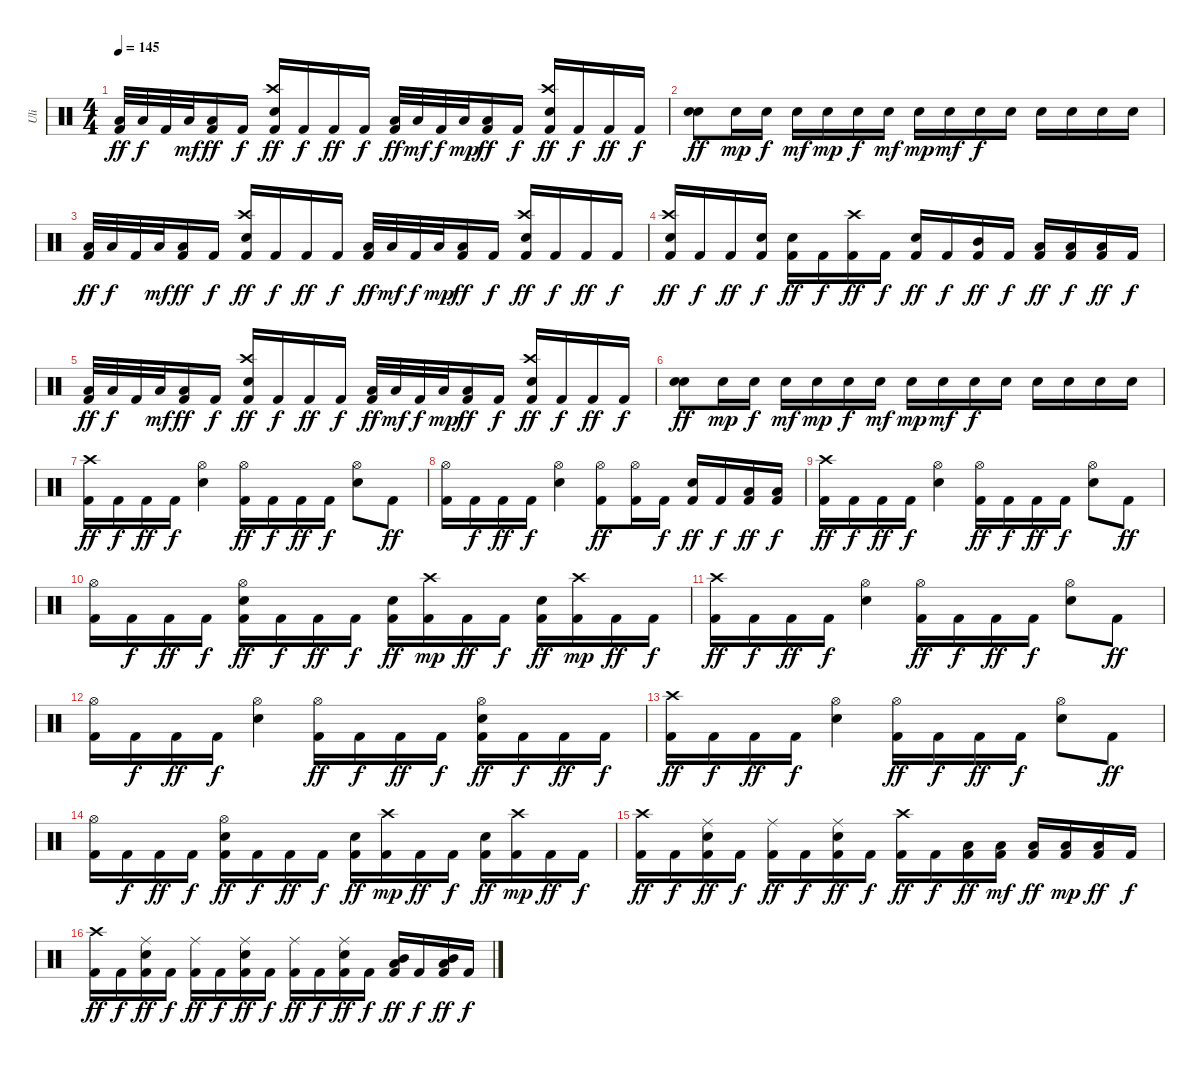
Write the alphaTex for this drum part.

\track ("Uli" "Uli") {instrument percussion}
\staff {score}
\articulation defaults
\ts (4 4)
\tempo 145
\clef neutral
\ks c
("Low Tom (hit)" "Kick (hit) 2").32{dy ff} "Low Tom (hit)".32{dy f} "Kick (hit) 2".32 "Low Tom (hit)".32{dy mf} ("Low Tom (hit)" "Kick (hit) 2").16{dy ff} "Kick (hit) 2".16{dy f} ("Crash high (hit)" "Electric Snare (hit)" "Kick (hit) 2").16{dy ff} "Kick (hit) 2".16{dy f} "Kick (hit) 2".16{dy ff} "Kick (hit) 2".16{dy f} ("Low Tom (hit)" "Kick (hit) 2").32{dy ff} "Low Tom (hit)".32{dy mf} "Kick (hit) 2".32{dy f} "Low Tom (hit)".32{dy mp} ("Low Tom (hit)" "Kick (hit) 2").16{dy ff} "Kick (hit) 2".16{dy f} ("Crash high (hit)" "Electric Snare (hit)" "Kick (hit) 2").16{dy ff} "Kick (hit) 2".16{dy f} "Kick (hit) 2".16{dy ff} "Kick (hit) 2".16{dy f} |
("Electric Snare (hit)" "Electric Snare (hit)").8{dy ff} "Electric Snare (hit)".16{dy mp} "Electric Snare (hit)".16{dy f} "Electric Snare (hit)".16{dy mf} "Electric Snare (hit)".16{dy mp} "Electric Snare (hit)".16{dy f} "Electric Snare (hit)".16{dy mf} "Electric Snare (hit)".16{dy mp} "Electric Snare (hit)".16{dy mf} "Electric Snare (hit)".16{dy f} "Electric Snare (hit)".16 "Electric Snare (hit)".16 "Electric Snare (hit)".16 "Electric Snare (hit)".16 "Electric Snare (hit)".16 |
("Low Tom (hit)" "Kick (hit) 2").32{dy ff} "Low Tom (hit)".32{dy f} "Kick (hit) 2".32 "Low Tom (hit)".32{dy mf} ("Low Tom (hit)" "Kick (hit) 2").16{dy ff} "Kick (hit) 2".16{dy f} ("Crash high (hit)" "Electric Snare (hit)" "Kick (hit) 2").16{dy ff} "Kick (hit) 2".16{dy f} "Kick (hit) 2".16{dy ff} "Kick (hit) 2".16{dy f} ("Low Tom (hit)" "Kick (hit) 2").32{dy ff} "Low Tom (hit)".32{dy mf} "Kick (hit) 2".32{dy f} "Low Tom (hit)".32{dy mp} ("Low Tom (hit)" "Kick (hit) 2").16{dy ff} "Kick (hit) 2".16{dy f} ("Crash high (hit)" "Electric Snare (hit)" "Kick (hit) 2").16{dy ff} "Kick (hit) 2".16{dy f} "Kick (hit) 2".16{dy ff} "Kick (hit) 2".16{dy f} |
("Crash high (hit)" "Electric Snare (hit)" "Kick (hit) 2").16{dy ff} "Kick (hit) 2".16{dy f} "Kick (hit) 2".16{dy ff} ("Electric Snare (hit)" "Kick (hit) 2").16{dy f} ("Electric Snare (hit)" "Kick (hit) 2").16{dy ff} "Kick (hit) 2".16{dy f} ("Crash high (hit)" "Kick (hit) 2").16{dy ff} "Kick (hit) 2".16{dy f} ("Electric Snare (hit)" "Kick (hit) 2").16{dy ff} "Kick (hit) 2".16{dy f} ("Mid Tom (hit)" "Kick (hit) 2").16{dy ff} "Kick (hit) 2".16{dy f} ("Low Tom (hit)" "Kick (hit) 2").16{dy ff} ("Low Tom (hit)" "Kick (hit) 2").16{dy f} ("Low Tom (hit)" "Kick (hit) 2").16{dy ff} "Kick (hit) 2".16{dy f} |
("Low Tom (hit)" "Kick (hit) 2").32{dy ff} "Low Tom (hit)".32{dy f} "Kick (hit) 2".32 "Low Tom (hit)".32{dy mf} ("Low Tom (hit)" "Kick (hit) 2").16{dy ff} "Kick (hit) 2".16{dy f} ("Crash high (hit)" "Electric Snare (hit)" "Kick (hit) 2").16{dy ff} "Kick (hit) 2".16{dy f} "Kick (hit) 2".16{dy ff} "Kick (hit) 2".16{dy f} ("Low Tom (hit)" "Kick (hit) 2").32{dy ff} "Low Tom (hit)".32{dy mf} "Kick (hit) 2".32{dy f} "Low Tom (hit)".32{dy mp} ("Low Tom (hit)" "Kick (hit) 2").16{dy ff} "Kick (hit) 2".16{dy f} ("Crash high (hit)" "Electric Snare (hit)" "Kick (hit) 2").16{dy ff} "Kick (hit) 2".16{dy f} "Kick (hit) 2".16{dy ff} "Kick (hit) 2".16{dy f} |
("Electric Snare (hit)" "Electric Snare (hit)").8{dy ff} "Electric Snare (hit)".16{dy mp} "Electric Snare (hit)".16{dy f} "Electric Snare (hit)".16{dy mf} "Electric Snare (hit)".16{dy mp} "Electric Snare (hit)".16{dy f} "Electric Snare (hit)".16{dy mf} "Electric Snare (hit)".16{dy mp} "Electric Snare (hit)".16{dy mf} "Electric Snare (hit)".16{dy f} "Electric Snare (hit)".16 "Electric Snare (hit)".16 "Electric Snare (hit)".16 "Electric Snare (hit)".16 "Electric Snare (hit)".16 |
("Crash high (hit)" "Kick (hit) 2").16{dy ff} "Kick (hit) 2".16{dy f} "Kick (hit) 2".16{dy ff} "Kick (hit) 2".16{dy f} ("Hi-Hat (open)" "Electric Snare (hit)").4 ("Hi-Hat (open)" "Kick (hit) 2").16{dy ff} "Kick (hit) 2".16{dy f} "Kick (hit) 2".16{dy ff} "Kick (hit) 2".16{dy f} ("Hi-Hat (open)" "Electric Snare (hit)").8 "Kick (hit) 2".8{dy ff} |
("Hi-Hat (open)" "Kick (hit) 2").16 "Kick (hit) 2".16{dy f} "Kick (hit) 2".16{dy ff} "Kick (hit) 2".16{dy f} ("Hi-Hat (open)" "Electric Snare (hit)").4 ("Hi-Hat (open)" "Kick (hit) 2").8{dy ff} ("Hi-Hat (open)" "Kick (hit) 2").16 "Kick (hit) 2".16{dy f} ("Electric Snare (hit)" "Kick (hit) 2").16{dy ff} "Kick (hit) 2".16{dy f} ("Low Tom (hit)" "Kick (hit) 2").16{dy ff} ("Low Tom (hit)" "Kick (hit) 2").16{dy f} |
("Crash high (hit)" "Kick (hit) 2").16{dy ff} "Kick (hit) 2".16{dy f} "Kick (hit) 2".16{dy ff} "Kick (hit) 2".16{dy f} ("Hi-Hat (open)" "Electric Snare (hit)").4 ("Hi-Hat (open)" "Kick (hit) 2").16{dy ff} "Kick (hit) 2".16{dy f} "Kick (hit) 2".16{dy ff} "Kick (hit) 2".16{dy f} ("Hi-Hat (open)" "Electric Snare (hit)").8 "Kick (hit) 2".8{dy ff} |
("Hi-Hat (open)" "Kick (hit) 2").16 "Kick (hit) 2".16{dy f} "Kick (hit) 2".16{dy ff} "Kick (hit) 2".16{dy f} ("Hi-Hat (open)" "Electric Snare (hit)" "Kick (hit) 2").16{dy ff} "Kick (hit) 2".16{dy f} "Kick (hit) 2".16{dy ff} "Kick (hit) 2".16{dy f} ("Electric Snare (hit)" "Kick (hit) 2").16{dy ff} ("Crash high (hit)" "Kick (hit) 2").16{dy mp} "Kick (hit) 2".16{dy ff} "Kick (hit) 2".16{dy f} ("Electric Snare (hit)" "Kick (hit) 2").16{dy ff} ("Crash high (hit)" "Kick (hit) 2").16{dy mp} "Kick (hit) 2".16{dy ff} "Kick (hit) 2".16{dy f} |
("Crash high (hit)" "Kick (hit) 2").16{dy ff} "Kick (hit) 2".16{dy f} "Kick (hit) 2".16{dy ff} "Kick (hit) 2".16{dy f} ("Hi-Hat (open)" "Electric Snare (hit)").4 ("Hi-Hat (open)" "Kick (hit) 2").16{dy ff} "Kick (hit) 2".16{dy f} "Kick (hit) 2".16{dy ff} "Kick (hit) 2".16{dy f} ("Hi-Hat (open)" "Electric Snare (hit)").8 "Kick (hit) 2".8{dy ff} |
("Hi-Hat (open)" "Kick (hit) 2").16 "Kick (hit) 2".16{dy f} "Kick (hit) 2".16{dy ff} "Kick (hit) 2".16{dy f} ("Hi-Hat (open)" "Electric Snare (hit)").4 ("Hi-Hat (open)" "Kick (hit) 2").16{dy ff} "Kick (hit) 2".16{dy f} "Kick (hit) 2".16{dy ff} "Kick (hit) 2".16{dy f} ("Hi-Hat (open)" "Electric Snare (hit)" "Kick (hit) 2").16{dy ff} "Kick (hit) 2".16{dy f} "Kick (hit) 2".16{dy ff} "Kick (hit) 2".16{dy f} |
("Crash high (hit)" "Kick (hit) 2").16{dy ff} "Kick (hit) 2".16{dy f} "Kick (hit) 2".16{dy ff} "Kick (hit) 2".16{dy f} ("Hi-Hat (open)" "Electric Snare (hit)").4 ("Hi-Hat (open)" "Kick (hit) 2").16{dy ff} "Kick (hit) 2".16{dy f} "Kick (hit) 2".16{dy ff} "Kick (hit) 2".16{dy f} ("Hi-Hat (open)" "Electric Snare (hit)").8 "Kick (hit) 2".8{dy ff} |
("Hi-Hat (open)" "Kick (hit) 2").16 "Kick (hit) 2".16{dy f} "Kick (hit) 2".16{dy ff} "Kick (hit) 2".16{dy f} ("Hi-Hat (open)" "Electric Snare (hit)" "Kick (hit) 2").16{dy ff} "Kick (hit) 2".16{dy f} "Kick (hit) 2".16{dy ff} "Kick (hit) 2".16{dy f} ("Electric Snare (hit)" "Kick (hit) 2").16{dy ff} ("Crash high (hit)" "Kick (hit) 2").16{dy mp} "Kick (hit) 2".16{dy ff} "Kick (hit) 2".16{dy f} ("Electric Snare (hit)" "Kick (hit) 2").16{dy ff} ("Crash high (hit)" "Kick (hit) 2").16{dy mp} "Kick (hit) 2".16{dy ff} "Kick (hit) 2".16{dy f} |
("Crash high (hit)" "Kick (hit) 2").16{dy ff} "Kick (hit) 2".16{dy f} ("Ride (middle)" "Electric Snare (hit)" "Kick (hit) 2").16{dy ff} "Kick (hit) 2".16{dy f} ("Ride (middle)" "Kick (hit) 2").16{dy ff} "Kick (hit) 2".16{dy f} ("Ride (middle)" "Electric Snare (hit)" "Kick (hit) 2").16{dy ff} "Kick (hit) 2".16{dy f} ("Crash high (hit)" "Kick (hit) 2").16{dy ff} "Kick (hit) 2".16{dy f} ("Low Tom (hit)" "Kick (hit) 2").16{dy ff} ("Low Tom (hit)" "Kick (hit) 2").16{dy mf} ("Low Tom (hit)" "Kick (hit) 2").16{dy ff} ("Low Tom (hit)" "Kick (hit) 2").16{dy mp} ("Low Tom (hit)" "Kick (hit) 2").16{dy ff} "Kick (hit) 2".16{dy f} |
("Crash high (hit)" "Kick (hit) 2").16{dy ff} "Kick (hit) 2".16{dy f} ("Ride (middle)" "Electric Snare (hit)" "Kick (hit) 2").16{dy ff} "Kick (hit) 2".16{dy f} ("Ride (middle)" "Kick (hit) 2").16{dy ff} "Kick (hit) 2".16{dy f} ("Ride (middle)" "Electric Snare (hit)" "Kick (hit) 2").16{dy ff} "Kick (hit) 2".16{dy f} ("Ride (middle)" "Kick (hit) 2").16{dy ff} "Kick (hit) 2".16{dy f} ("Ride (middle)" "Electric Snare (hit)" "Kick (hit) 2").16{dy ff} "Kick (hit) 2".16{dy f} ("Low Tom (hit)" "Kick (hit) 2" "Mid Tom (hit)").16{dy ff} "Kick (hit) 2".16{dy f} ("Low Tom (hit)" "Kick (hit) 2" "Mid Tom (hit)").16{dy ff} "Kick (hit) 2".16{dy f}
